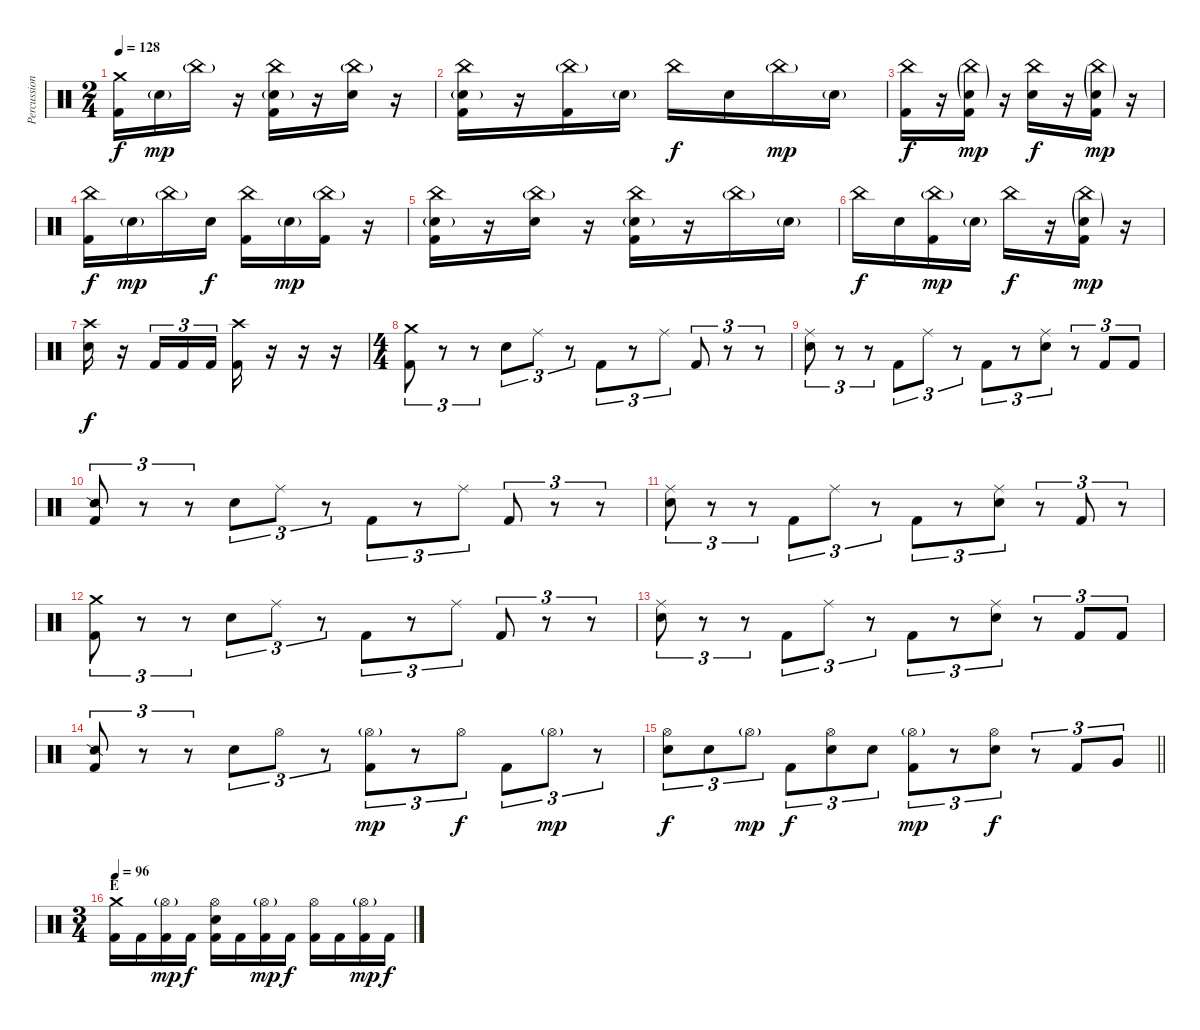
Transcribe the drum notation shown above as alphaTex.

\track ("Percussion" "Percussion") {instrument percussion}
\staff {score}
\articulation defaults
\ts (2 4)
\tempo 128
\clef neutral
\ks c
("Crash medium (hit)" "Kick (hit) 2").16{dy f} "Snare (hit) 2"{g}.16{dy mp} "China (hit)"{g}.16 r.16 ("China (hit)" "Snare (hit) 2"{g} "Kick (hit) 2").16 r.16 ("China (hit)"{g} "Snare (hit) 2").16 r.16 |
("China (hit)" "Snare (hit) 2"{g} "Kick (hit) 2").16 r.16 ("China (hit)"{g} "Kick (hit) 2").16 "Snare (hit) 2"{g}.16 "China (hit)".16{dy f} "Snare (hit) 2".16 "China (hit)"{g}.16{dy mp} "Snare (hit) 2"{g}.16 |
("China (hit)" "Kick (hit) 2").16{dy f} r.16 ("China (hit)"{g} "Snare (hit) 2"{g} "Kick (hit) 2").16{dy mp} r.16 ("China (hit)" "Snare (hit) 2").16{dy f} r.16 ("China (hit)"{g} "Snare (hit) 2"{g} "Kick (hit) 2").16{dy mp} r.16 |
("China (hit)" "Kick (hit) 2").16{dy f} "Snare (hit) 2"{g}.16{dy mp} "China (hit)"{g}.16 "Snare (hit) 2".16{dy f} ("China (hit)" "Kick (hit) 2").16 "Snare (hit) 2"{g}.16{dy mp} ("China (hit)"{g} "Kick (hit) 2").16 r.16 |
("China (hit)" "Snare (hit) 2"{g} "Kick (hit) 2").16 r.16 ("China (hit)"{g} "Snare (hit) 2").16 r.16 ("China (hit)" "Snare (hit) 2"{g} "Kick (hit) 2").16 r.16 "China (hit)"{g}.16 "Snare (hit) 2"{g}.16 |
"China (hit)".16{dy f} "Snare (hit) 2".16 ("China (hit)"{g} "Kick (hit) 2").16{dy mp} "Snare (hit) 2"{g}.16 "China (hit)".16{dy f} r.16 ("China (hit)"{g} "Snare (hit) 2"{g} "Kick (hit) 2").16{dy mp} r.16 |
("Crash high (hit)" "Snare (hit) 2").16{dy f} r.16 "Kick (hit) 2".16{tu (3 2)} "Kick (hit) 2".16{tu (3 2)} "Kick (hit) 2".16{tu (3 2)} ("Crash high (hit)" "Kick (hit) 2").16 r.16 r.16 r.16 |
\ts (4 4)
("Crash medium (hit)" "Kick (hit) 2").8{tu (3 2)} r.8{tu (3 2)} r.8{tu (3 2)} "Snare (hit) 2".8{tu (3 2)} "Ride (middle)".8{tu (3 2)} r.8{tu (3 2)} "Kick (hit) 2".8{tu (3 2)} r.8{tu (3 2)} "Ride (middle)".8{tu (3 2)} "Kick (hit) 2".8{tu (3 2)} r.8{tu (3 2)} r.8{tu (3 2)} |
("Ride (middle)" "Snare (hit) 2").8{tu (3 2)} r.8{tu (3 2)} r.8{tu (3 2)} "Kick (hit) 2".8{tu (3 2)} "Ride (middle)".8{tu (3 2)} r.8{tu (3 2)} "Kick (hit) 2".8{tu (3 2)} r.8{tu (3 2)} ("Ride (middle)" "Snare (hit) 2").8{tu (3 2)} r.8{tu (3 2)} "Kick (hit) 2".8{tu (3 2)} "Kick (hit) 2".8{tu (3 2)} |
("Snare (side stick) 2" "Kick (hit) 2").8{tu (3 2)} r.8{tu (3 2)} r.8{tu (3 2)} "Snare (hit) 2".8{tu (3 2)} "Ride (middle)".8{tu (3 2)} r.8{tu (3 2)} "Kick (hit) 2".8{tu (3 2)} r.8{tu (3 2)} "Ride (middle)".8{tu (3 2)} "Kick (hit) 2".8{tu (3 2)} r.8{tu (3 2)} r.8{tu (3 2)} |
("Ride (middle)" "Snare (hit) 2").8{tu (3 2)} r.8{tu (3 2)} r.8{tu (3 2)} "Kick (hit) 2".8{tu (3 2)} "Ride (middle)".8{tu (3 2)} r.8{tu (3 2)} "Kick (hit) 2".8{tu (3 2)} r.8{tu (3 2)} ("Ride (middle)" "Snare (hit) 2").8{tu (3 2)} r.8{tu (3 2)} "Kick (hit) 2".8{tu (3 2)} r.8{tu (3 2)} |
("Crash medium (hit)" "Kick (hit) 2").8{tu (3 2)} r.8{tu (3 2)} r.8{tu (3 2)} "Snare (hit) 2".8{tu (3 2)} "Ride (middle)".8{tu (3 2)} r.8{tu (3 2)} "Kick (hit) 2".8{tu (3 2)} r.8{tu (3 2)} "Ride (middle)".8{tu (3 2)} "Kick (hit) 2".8{tu (3 2)} r.8{tu (3 2)} r.8{tu (3 2)} |
("Ride (middle)" "Snare (hit) 2").8{tu (3 2)} r.8{tu (3 2)} r.8{tu (3 2)} "Kick (hit) 2".8{tu (3 2)} "Ride (middle)".8{tu (3 2)} r.8{tu (3 2)} "Kick (hit) 2".8{tu (3 2)} r.8{tu (3 2)} ("Ride (middle)" "Snare (hit) 2").8{tu (3 2)} r.8{tu (3 2)} "Kick (hit) 2".8{tu (3 2)} "Kick (hit) 2".8{tu (3 2)} |
("Snare (side stick) 2" "Kick (hit) 2").8{tu (3 2)} r.8{tu (3 2)} r.8{tu (3 2)} "Snare (hit) 2".8{tu (3 2)} "Hi-Hat (open)".8{tu (3 2)} r.8{tu (3 2)} ("Hi-Hat (open)"{g} "Kick (hit) 2").8{tu (3 2) dy mp} r.8{tu (3 2)} "Hi-Hat (open)".8{tu (3 2) dy f} "Kick (hit) 2".8{tu (3 2)} "Hi-Hat (open)"{g}.8{tu (3 2) dy mp} r.8{tu (3 2)} |
\barLineRight lightlight
("Hi-Hat (open)" "Snare (hit) 2").8{tu (3 2) dy f} "Snare (hit) 2".8{tu (3 2)} "Hi-Hat (open)"{g}.8{tu (3 2) dy mp} "Kick (hit) 2".8{tu (3 2) dy f} ("Hi-Hat (open)" "Snare (hit) 2").8{tu (3 2)} "Snare (hit) 2".8{tu (3 2)} ("Hi-Hat (open)"{g} "Kick (hit) 2").8{tu (3 2) dy mp} r.8{tu (3 2)} ("Hi-Hat (open)" "Snare (hit) 2").8{tu (3 2) dy f} r.8{tu (3 2)} "Kick (hit) 2".8{tu (3 2)} "Very Low Tom (hit)".8{tu (3 2)} |
\ts (3 4)
\section ("" "E")
\tempo 96
("Crash medium (hit)" "Kick (hit) 2").16 "Kick (hit) 2".16 ("Hi-Hat (open)"{g} "Kick (hit) 2").16{dy mp} "Kick (hit) 2".16{dy f} ("Hi-Hat (open)" "Snare (hit) 2" "Kick (hit) 2").16 "Kick (hit) 2".16 ("Hi-Hat (open)"{g} "Kick (hit) 2").16{dy mp} "Kick (hit) 2".16{dy f} ("Hi-Hat (open)" "Kick (hit) 2").16 "Kick (hit) 2".16 ("Hi-Hat (open)"{g} "Kick (hit) 2").16{dy mp} "Kick (hit) 2".16{dy f}
